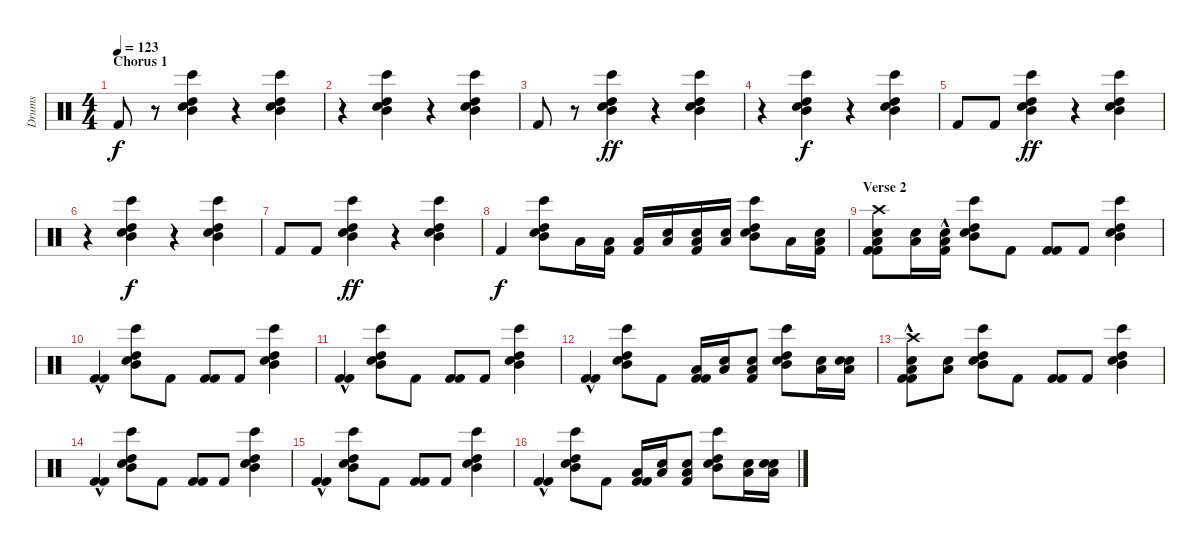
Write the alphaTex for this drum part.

\track ("Drums" "Drums") {instrument percussion}
\staff {score}
\articulation defaults
\ts (4 4)
\section ("" "Chorus 1")
\tempo 123
\clef neutral
\ks c "Kick (hit) 2".8{dy f}
r.8 ("Bongo High (hit)" "High Tom (hit)" "Mid Tom (hit)" "Snare (hit) 2").4 r.4 ("Bongo High (hit)" "High Tom (hit)" "Mid Tom (hit)" "Snare (hit) 2").4 |
r.4 ("Bongo High (hit)" "High Tom (hit)" "Mid Tom (hit)" "Snare (hit) 2").4 r.4 ("Bongo High (hit)" "High Tom (hit)" "Mid Tom (hit)" "Snare (hit) 2").4 |
"Kick (hit) 2".8 r.8 ("Bongo High (hit)" "High Tom (hit)" "Mid Tom (hit)" "Snare (hit) 2").4{dy ff} r.4 ("Bongo High (hit)" "High Tom (hit)" "Mid Tom (hit)" "Snare (hit) 2").4 |
r.4 ("Bongo High (hit)" "High Tom (hit)" "Mid Tom (hit)" "Snare (hit) 2").4{dy f} r.4 ("Bongo High (hit)" "High Tom (hit)" "Mid Tom (hit)" "Snare (hit) 2").4 |
"Kick (hit) 2".8 "Kick (hit) 2".8 ("Bongo High (hit)" "High Tom (hit)" "Mid Tom (hit)" "Snare (hit) 2").4{dy ff} r.4 ("Bongo High (hit)" "High Tom (hit)" "Mid Tom (hit)" "Snare (hit) 2").4 |
r.4 ("Bongo High (hit)" "High Tom (hit)" "Mid Tom (hit)" "Snare (hit) 2").4{dy f} r.4 ("Bongo High (hit)" "High Tom (hit)" "Mid Tom (hit)" "Snare (hit) 2").4 |
"Kick (hit) 2".8 "Kick (hit) 2".8 ("Bongo High (hit)" "High Tom (hit)" "Mid Tom (hit)" "Snare (hit) 2").4{dy ff} r.4 ("Bongo High (hit)" "High Tom (hit)" "Mid Tom (hit)" "Snare (hit) 2").4 |
"Kick (hit) 2".4{dy f} ("Bongo High (hit)" "High Tom (hit)" "Mid Tom (hit)" "Snare (hit) 2").8 "Low Tom (hit)".16 ("Low Tom (hit)" "Kick (hit) 2").16 ("Low Tom (hit)" "Kick (hit) 2").16 ("Snare (hit) 2" "Low Tom (hit)").16 ("Snare (hit) 2" "Low Tom (hit)" "Kick (hit) 2").16 ("Snare (hit) 2" "Low Floor Tom (hit)").16 ("Bongo High (hit)" "High Tom (hit)" "Mid Tom (hit)" "Snare (hit) 2").8 "Low Floor Tom (hit)".16 ("Snare (hit) 2" "Low Floor Tom (hit)" "Kick (hit) 2").16 |
\section ("" "Verse 2")
("Crash high (hit)" "Snare (hit) 2" "Low Tom (hit)" "Kick (hit) 2" "Kick (hit) 2").8 ("Snare (hit) 2" "Low Tom (hit)").16 ("Snare (hit) 2" "Low Tom (hit)" "Kick (hit) 2"{hac}).16 ("Bongo High (hit)" "High Tom (hit)" "Mid Tom (hit)" "Snare (hit) 2").8 "Kick (hit) 2".8 ("Kick (hit) 2" "Kick (hit) 2").8 "Kick (hit) 2".8 ("Bongo High (hit)" "High Tom (hit)" "Mid Tom (hit)" "Snare (hit) 2").4 |
("Kick (hit) 2"{hac} "Kick (hit) 2"{hac}).4 ("Bongo High (hit)" "High Tom (hit)" "Mid Tom (hit)" "Snare (hit) 2").8 "Kick (hit) 2".8 ("Kick (hit) 2" "Kick (hit) 2").8 "Kick (hit) 2".8 ("Bongo High (hit)" "High Tom (hit)" "Mid Tom (hit)" "Snare (hit) 2").4 |
("Kick (hit) 2"{hac} "Kick (hit) 2"{hac}).4 ("Bongo High (hit)" "High Tom (hit)" "Mid Tom (hit)" "Snare (hit) 2").8 "Kick (hit) 2".8 ("Kick (hit) 2" "Kick (hit) 2").8 "Kick (hit) 2".8 ("Bongo High (hit)" "High Tom (hit)" "Mid Tom (hit)" "Snare (hit) 2").4 |
("Kick (hit) 2"{hac} "Kick (hit) 2"{hac}).4 ("Bongo High (hit)" "High Tom (hit)" "Mid Tom (hit)" "Snare (hit) 2").8 "Kick (hit) 2".8 ("Low Floor Tom (hit)" "Kick (hit) 2" "Kick (hit) 2").16 ("Snare (hit) 2" "Low Floor Tom (hit)").16 ("Snare (hit) 2" "Low Floor Tom (hit)" "Kick (hit) 2").8 ("Bongo High (hit)" "High Tom (hit)" "Mid Tom (hit)" "Snare (hit) 2").8 ("Low Floor Tom (hit)" "Snare (hit) 2").16 ("Snare (hit) 2" "Low Floor Tom (hit)" "Snare (hit) 2").16 |
("Crash high (hit)" "Snare (hit) 2" "Low Floor Tom (hit)" "Kick (hit) 2"{hac} "Kick (hit) 2"{hac}).8 ("Snare (hit) 2" "Low Floor Tom (hit)").8 ("Bongo High (hit)" "High Tom (hit)" "Mid Tom (hit)" "Snare (hit) 2").8 "Kick (hit) 2".8 ("Kick (hit) 2" "Kick (hit) 2").8 "Kick (hit) 2".8 ("Bongo High (hit)" "High Tom (hit)" "Mid Tom (hit)" "Snare (hit) 2").4 |
("Kick (hit) 2"{hac} "Kick (hit) 2"{hac}).4 ("Bongo High (hit)" "High Tom (hit)" "Mid Tom (hit)" "Snare (hit) 2").8 "Kick (hit) 2".8 ("Kick (hit) 2" "Kick (hit) 2").8 "Kick (hit) 2".8 ("Bongo High (hit)" "High Tom (hit)" "Mid Tom (hit)" "Snare (hit) 2").4 |
("Kick (hit) 2"{hac} "Kick (hit) 2"{hac}).4 ("Bongo High (hit)" "High Tom (hit)" "Mid Tom (hit)" "Snare (hit) 2").8 "Kick (hit) 2".8 ("Kick (hit) 2" "Kick (hit) 2").8 "Kick (hit) 2".8 ("Bongo High (hit)" "High Tom (hit)" "Mid Tom (hit)" "Snare (hit) 2").4 |
("Kick (hit) 2"{hac} "Kick (hit) 2"{hac}).4 ("Bongo High (hit)" "High Tom (hit)" "Mid Tom (hit)" "Snare (hit) 2").8 "Kick (hit) 2".8 ("Low Floor Tom (hit)" "Kick (hit) 2" "Kick (hit) 2").16 ("Snare (hit) 2" "Low Floor Tom (hit)").16 ("Snare (hit) 2" "Low Floor Tom (hit)" "Kick (hit) 2").8 ("Bongo High (hit)" "High Tom (hit)" "Mid Tom (hit)" "Snare (hit) 2").8 ("Low Floor Tom (hit)" "Snare (hit) 2").16 ("Snare (hit) 2" "Low Floor Tom (hit)" "Snare (hit) 2").16
